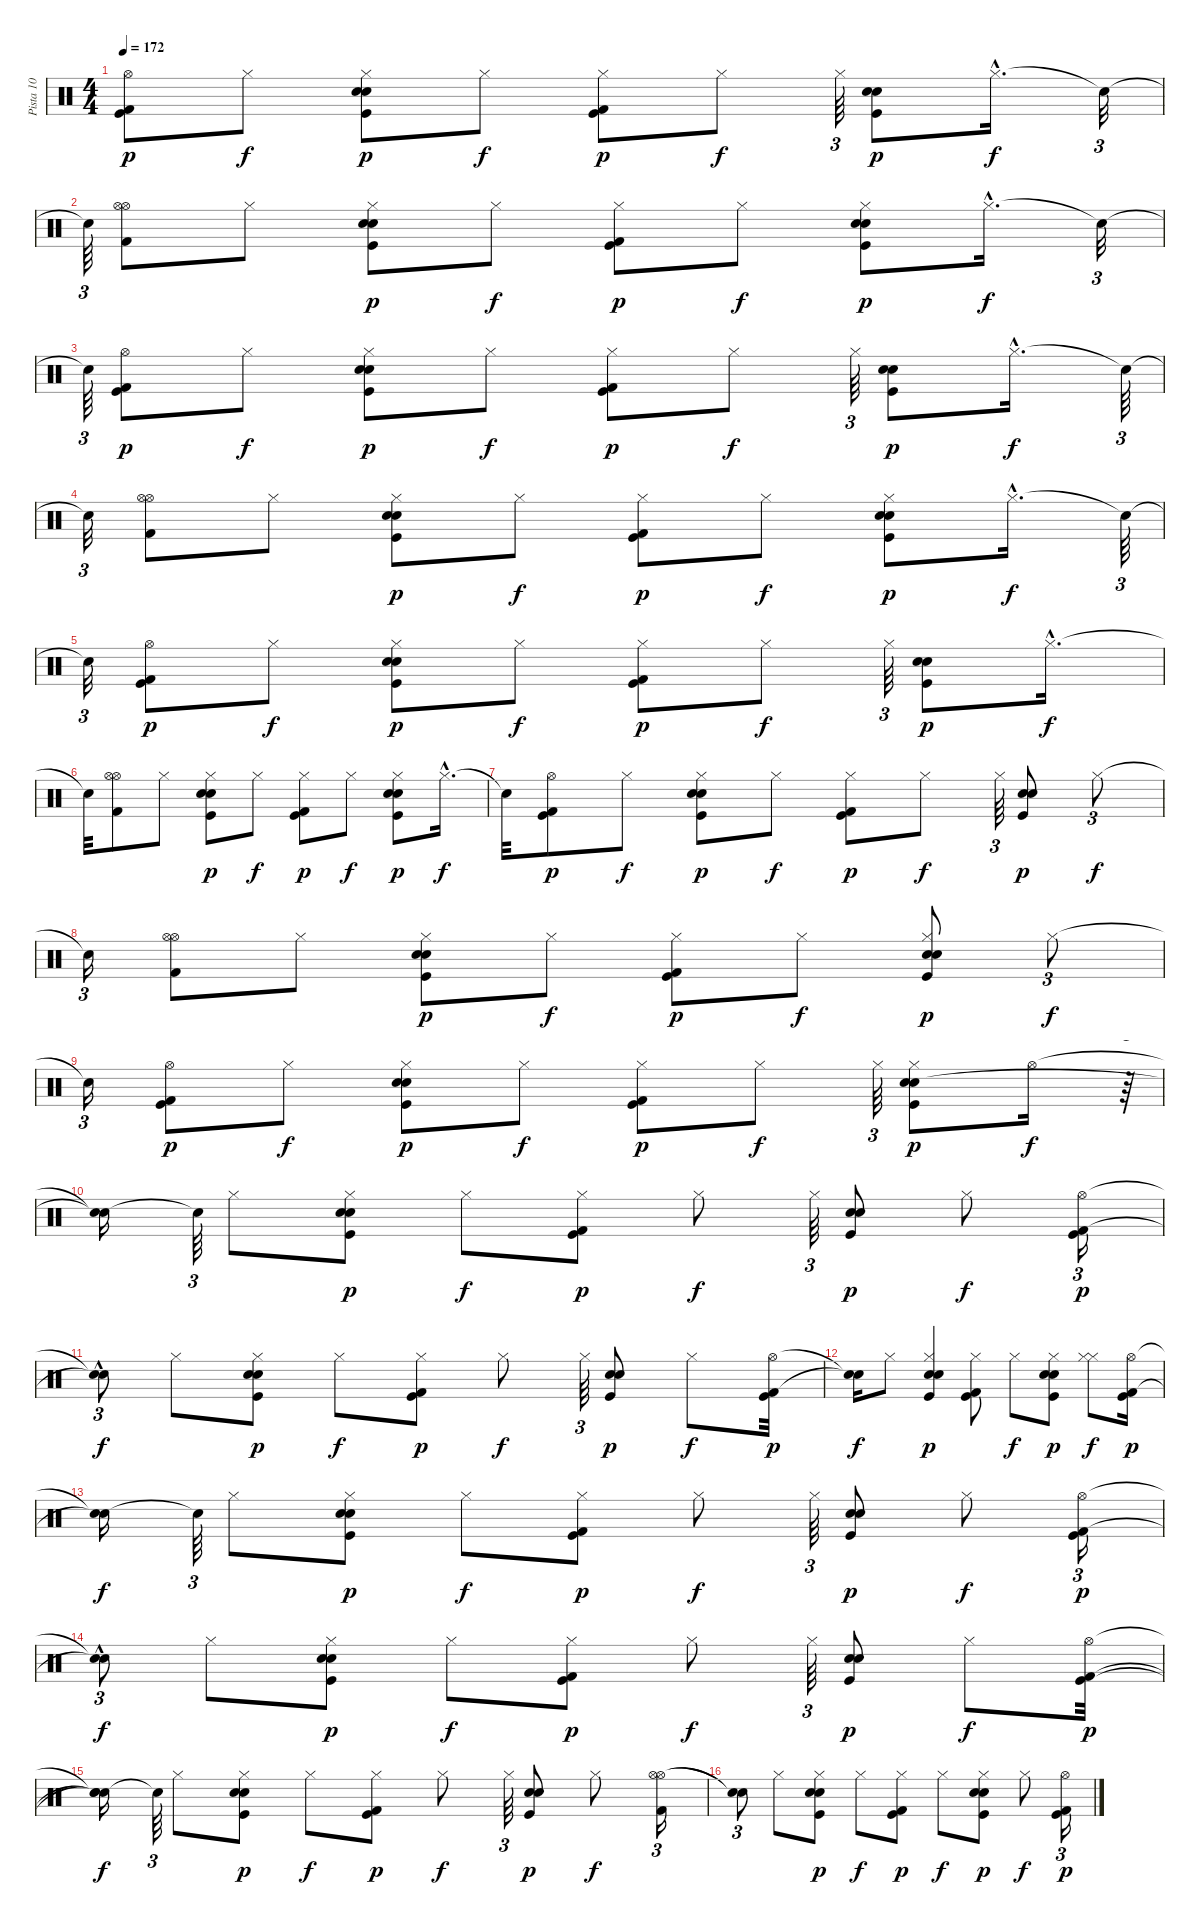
\track ("Pista 10" "Pista 10") {instrument percussion}
\staff {score}
\articulation defaults
\ts (4 4)
\tempo 172
\clef neutral
\ks c
("Hi-Hat (open)" "Kick (hit) 2" "Kick (hit)").8{dy p} "Hi-Hat (closed)".8{dy f} ("Hi-Hat (closed)" "Snare (hit) 2" "Electric Snare (hit)" "Kick (hit)").8{dy p} "Hi-Hat (closed)".8{dy f} ("Hi-Hat (closed)" "Kick (hit) 2" "Kick (hit)").8{dy p} "Hi-Hat (closed)".8{dy f} "Hi-Hat (closed)".64{tu (3 2)} ("Snare (hit) 2" "Electric Snare (hit)" "Kick (hit)").8{dy p} "Hi-Hat (closed)"{hac}.16{d dy f} "Snare (hit)"{t}.32{tu (3 2)} |
"Snare (hit)"{t}.64{tu (3 2)} ("Hi-Hat (open)" "Hi-Hat (open)" "Kick (hit) 2").8 "Hi-Hat (closed)".8 ("Hi-Hat (closed)" "Electric Snare (hit)" "Snare (hit) 2" "Kick (hit)").8{dy p} "Hi-Hat (closed)".8{dy f} ("Kick (hit) 2" "Kick (hit)" "Hi-Hat (closed)").8{dy p} "Hi-Hat (closed)".8{dy f} ("Snare (hit) 2" "Electric Snare (hit)" "Kick (hit)" "Hi-Hat (closed)").8{dy p} "Hi-Hat (closed)"{hac}.16{d dy f} "Snare (hit)"{t}.32{tu (3 2)} |
"Snare (hit)"{t}.64{tu (3 2)} ("Hi-Hat (open)" "Kick (hit) 2" "Kick (hit)").8{dy p} "Hi-Hat (closed)".8{dy f} ("Hi-Hat (closed)" "Snare (hit) 2" "Electric Snare (hit)" "Kick (hit)").8{dy p} "Hi-Hat (closed)".8{dy f} ("Hi-Hat (closed)" "Kick (hit) 2" "Kick (hit)").8{dy p} "Hi-Hat (closed)".8{dy f} "Hi-Hat (closed)".64{tu (3 2)} ("Snare (hit) 2" "Electric Snare (hit)" "Kick (hit)").8{dy p} "Hi-Hat (closed)"{hac}.16{d dy f} "Snare (hit)"{t}.64{tu (3 2)} |
"Snare (hit)"{t}.32{tu (3 2)} ("Hi-Hat (open)" "Hi-Hat (open)" "Kick (hit) 2").8 "Hi-Hat (closed)".8 ("Hi-Hat (closed)" "Electric Snare (hit)" "Snare (hit) 2" "Kick (hit)").8{dy p} "Hi-Hat (closed)".8{dy f} ("Kick (hit) 2" "Kick (hit)" "Hi-Hat (closed)").8{dy p} "Hi-Hat (closed)".8{dy f} ("Snare (hit) 2" "Electric Snare (hit)" "Kick (hit)" "Hi-Hat (closed)").8{dy p} "Hi-Hat (closed)"{hac}.16{d dy f} "Snare (hit)"{t}.64{tu (3 2)} |
"Snare (hit)"{t}.32{tu (3 2)} ("Hi-Hat (open)" "Kick (hit) 2" "Kick (hit)").8{dy p} "Hi-Hat (closed)".8{dy f} ("Hi-Hat (closed)" "Snare (hit) 2" "Electric Snare (hit)" "Kick (hit)").8{dy p} "Hi-Hat (closed)".8{dy f} ("Hi-Hat (closed)" "Kick (hit) 2" "Kick (hit)").8{dy p} "Hi-Hat (closed)".8{dy f} "Hi-Hat (closed)".64{tu (3 2)} ("Snare (hit) 2" "Electric Snare (hit)" "Kick (hit)").8{dy p} "Hi-Hat (closed)"{hac}.16{d dy f} |
"Snare (hit)"{t}.32 ("Hi-Hat (open)" "Hi-Hat (open)" "Kick (hit) 2").8 "Hi-Hat (closed)".8 ("Hi-Hat (closed)" "Electric Snare (hit)" "Snare (hit) 2" "Kick (hit)").8{dy p} "Hi-Hat (closed)".8{dy f} ("Kick (hit) 2" "Kick (hit)" "Hi-Hat (closed)").8{dy p} "Hi-Hat (closed)".8{dy f} ("Snare (hit) 2" "Electric Snare (hit)" "Kick (hit)" "Hi-Hat (closed)").8{dy p} "Hi-Hat (closed)"{hac}.16{d dy f} |
"Snare (hit)"{t}.32 ("Hi-Hat (open)" "Kick (hit) 2" "Kick (hit)").8{dy p} "Hi-Hat (closed)".8{dy f} ("Hi-Hat (closed)" "Snare (hit) 2" "Electric Snare (hit)" "Kick (hit)").8{dy p} "Hi-Hat (closed)".8{dy f} ("Hi-Hat (closed)" "Kick (hit) 2" "Kick (hit)").8{dy p} "Hi-Hat (closed)".8{dy f} "Hi-Hat (closed)".64{tu (3 2)} ("Snare (hit) 2" "Electric Snare (hit)" "Kick (hit)").8{dy p} "Hi-Hat (closed)".8{tu (3 2) dy f} |
"Snare (hit)"{t}.16{tu (3 2)} ("Hi-Hat (open)" "Hi-Hat (open)" "Kick (hit) 2").8 "Hi-Hat (closed)".8 ("Hi-Hat (closed)" "Electric Snare (hit)" "Snare (hit) 2" "Kick (hit)").8{dy p} "Hi-Hat (closed)".8{dy f} ("Kick (hit) 2" "Kick (hit)" "Hi-Hat (closed)").8{dy p} "Hi-Hat (closed)".8{dy f} ("Snare (hit) 2" "Electric Snare (hit)" "Kick (hit)" "Hi-Hat (closed)").8{dy p} "Hi-Hat (closed)".8{tu (3 2) dy f} |
"Snare (hit)"{t}.16{tu (3 2)} ("Hi-Hat (open)" "Kick (hit) 2" "Kick (hit)").8{dy p} "Hi-Hat (closed)".8{dy f} ("Hi-Hat (closed)" "Snare (hit) 2" "Electric Snare (hit)" "Kick (hit)").8{dy p} "Hi-Hat (closed)".8{dy f} ("Hi-Hat (closed)" "Kick (hit) 2" "Kick (hit)").8{dy p} "Hi-Hat (closed)".8{dy f} "Hi-Hat (closed)".64{tu (3 2)} ("Snare (hit) 2" "Electric Snare (hit)" "Kick (hit)" "Hi-Hat (closed)").8{dy p} "Hi-Hat (open)".16{dy f} r.64{tu (3 2)} |
("Snare (hit)"{t} "Snare (hit)"{t}).16 "Snare (hit)"{t}.64{tu (3 2)} "Hi-Hat (closed)".8 ("Hi-Hat (closed)" "Snare (hit) 2" "Electric Snare (hit)" "Kick (hit)").8{dy p} "Hi-Hat (closed)".8{dy f} ("Hi-Hat (closed)" "Kick (hit) 2" "Kick (hit)").8{dy p} "Hi-Hat (closed)".8{dy f} "Hi-Hat (closed)".64{tu (3 2)} ("Snare (hit) 2" "Electric Snare (hit)" "Kick (hit)").8{dy p} "Hi-Hat (closed)".8{dy f} ("Hi-Hat (open)" "Kick (hit) 2" "Kick (hit)").16{tu (3 2) dy p} |
("Snare (hit)"{t} "Snare (hit)"{hac t}).8{tu (3 2) dy f} "Hi-Hat (closed)".8 ("Hi-Hat (closed)" "Snare (hit) 2" "Electric Snare (hit)" "Kick (hit)").8{dy p} "Hi-Hat (closed)".8{dy f} ("Hi-Hat (closed)" "Kick (hit) 2" "Kick (hit)").8{dy p} "Hi-Hat (closed)".8{dy f} "Hi-Hat (closed)".64{tu (3 2)} ("Snare (hit) 2" "Electric Snare (hit)" "Kick (hit)").8{dy p} "Hi-Hat (closed)".8{dy f} ("Hi-Hat (open)" "Kick (hit) 2" "Kick (hit)").32{dy p} |
("Snare (hit)"{t} "Snare (hit)"{t}).16{dy f} "Hi-Hat (closed)".8 ("Hi-Hat (closed)" "Electric Snare (hit)" "Snare (hit) 2" "Kick (hit)").4{dy p} ("Hi-Hat (closed)" "Kick (hit) 2" "Kick (hit)").8 "Hi-Hat (closed)".8{dy f} ("Hi-Hat (closed)" "Snare (hit) 2" "Electric Snare (hit)" "Kick (hit)").8{dy p} ("Hi-Hat (closed)" "Hi-Hat (closed)").8{dy f} ("Hi-Hat (open)" "Kick (hit) 2" "Kick (hit)").16{dy p} |
("Snare (hit)"{t} "Snare (hit)"{t}).16{dy f} "Snare (hit)"{t}.64{tu (3 2)} "Hi-Hat (closed)".8 ("Hi-Hat (closed)" "Snare (hit) 2" "Electric Snare (hit)" "Kick (hit)").8{dy p} "Hi-Hat (closed)".8{dy f} ("Hi-Hat (closed)" "Kick (hit) 2" "Kick (hit)").8{dy p} "Hi-Hat (closed)".8{dy f} "Hi-Hat (closed)".64{tu (3 2)} ("Snare (hit) 2" "Electric Snare (hit)" "Kick (hit)").8{dy p} "Hi-Hat (closed)".8{dy f} ("Hi-Hat (open)" "Kick (hit) 2" "Kick (hit)").16{tu (3 2) dy p} |
("Snare (hit)"{t} "Snare (hit)"{hac t}).8{tu (3 2) dy f} "Hi-Hat (closed)".8 ("Hi-Hat (closed)" "Snare (hit) 2" "Electric Snare (hit)" "Kick (hit)").8{dy p} "Hi-Hat (closed)".8{dy f} ("Hi-Hat (closed)" "Kick (hit) 2" "Kick (hit)").8{dy p} "Hi-Hat (closed)".8{dy f} "Hi-Hat (closed)".64{tu (3 2)} ("Snare (hit) 2" "Electric Snare (hit)" "Kick (hit)").8{dy p} "Hi-Hat (closed)".8{dy f} ("Hi-Hat (open)" "Kick (hit) 2" "Kick (hit)").32{dy p} |
("Snare (hit)"{t} "Snare (hit)"{t} "Snare (hit)"{t}).16{dy f} "Snare (hit)"{t}.64{tu (3 2)} "Hi-Hat (closed)".8 ("Hi-Hat (closed)" "Snare (hit) 2" "Electric Snare (hit)" "Kick (hit)").8{dy p} "Hi-Hat (closed)".8{dy f} ("Hi-Hat (closed)" "Kick (hit) 2" "Kick (hit)").8{dy p} "Hi-Hat (closed)".8{dy f} "Hi-Hat (closed)".64{tu (3 2)} ("Snare (hit) 2" "Electric Snare (hit)" "Kick (hit)").8{dy p} "Hi-Hat (closed)".8{dy f} ("Hi-Hat (open)" "Hi-Hat (open)" "Kick (hit) 2").16{tu (3 2)} |
("Snare (hit)"{t} "Snare (hit)"{t}).8{tu (3 2)} "Hi-Hat (closed)".8 ("Hi-Hat (closed)" "Electric Snare (hit)" "Snare (hit) 2" "Kick (hit)").8{dy p} "Hi-Hat (closed)".8{dy f} ("Kick (hit) 2" "Kick (hit)" "Hi-Hat (closed)").8{dy p} "Hi-Hat (closed)".8{dy f} ("Snare (hit) 2" "Electric Snare (hit)" "Kick (hit)" "Hi-Hat (closed)").8{dy p} "Hi-Hat (closed)".8{dy f} ("Hi-Hat (open)" "Kick (hit) 2" "Kick (hit)").16{tu (3 2) dy p}
